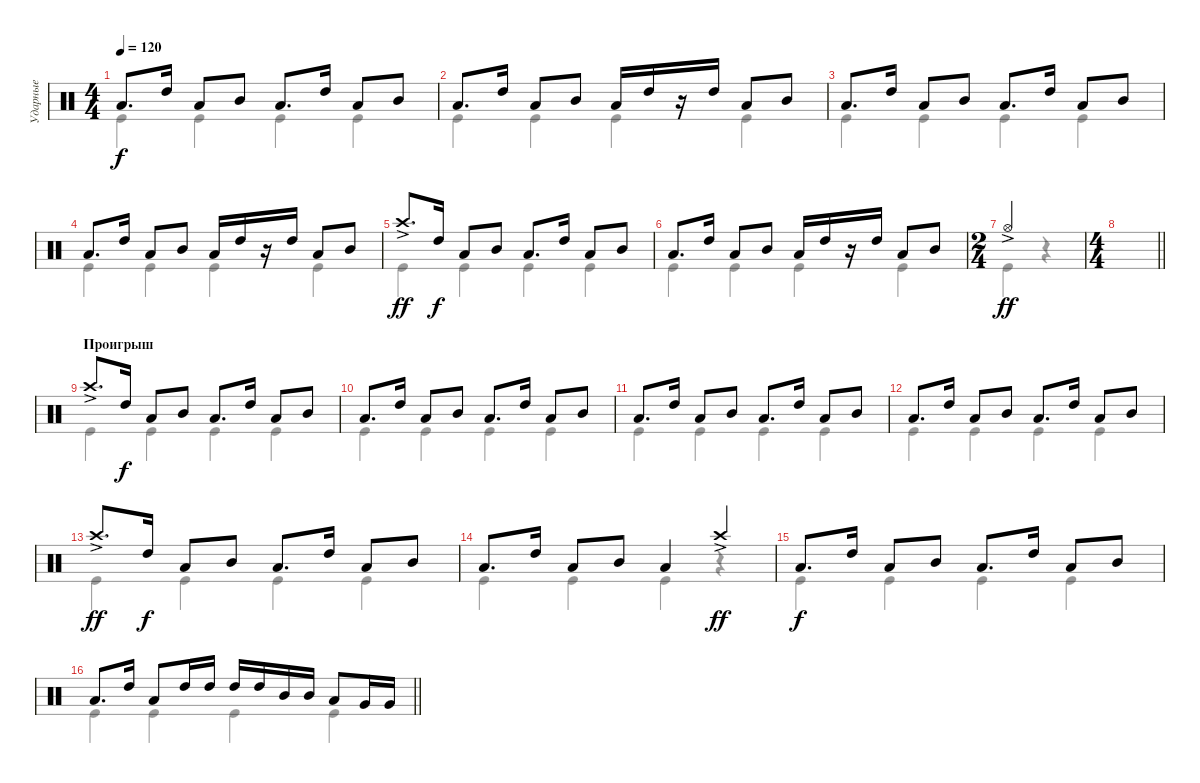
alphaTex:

\track ("Ударные" "Ударные") {instrument percussion}
\staff {score}
\articulation defaults
\voice
\ts (4 4)
\tempo 120
\clef neutral
\ks c "Low Tom (hit)".8{d dy f} "High Tom (hit)".16 "Low Tom (hit)".8 "Mid Tom (hit)".8 "Low Tom (hit)".8{d} "High Tom (hit)".16 "Low Tom (hit)".8 "Mid Tom (hit)".8
|
"Low Tom (hit)".8{d} "High Tom (hit)".16 "Low Tom (hit)".8 "Mid Tom (hit)".8 "Low Tom (hit)".16 "High Tom (hit)".16 r.16 "High Tom (hit)".16 "Low Tom (hit)".8 "Mid Tom (hit)".8 |
"Low Tom (hit)".8{d} "High Tom (hit)".16 "Low Tom (hit)".8 "Mid Tom (hit)".8 "Low Tom (hit)".8{d} "High Tom (hit)".16 "Low Tom (hit)".8 "Mid Tom (hit)".8 |
"Low Tom (hit)".8{d} "High Tom (hit)".16 "Low Tom (hit)".8 "Mid Tom (hit)".8 "Low Tom (hit)".16 "High Tom (hit)".16 r.16 "High Tom (hit)".16 "Low Tom (hit)".8 "Mid Tom (hit)".8 |
"Crash high (hit)"{ac}.8{d dy ff} "High Tom (hit)".16{dy f} "Low Tom (hit)".8 "Mid Tom (hit)".8 "Low Tom (hit)".8{d} "High Tom (hit)".16 "Low Tom (hit)".8 "Mid Tom (hit)".8 |
"Low Tom (hit)".8{d} "High Tom (hit)".16 "Low Tom (hit)".8 "Mid Tom (hit)".8 "Low Tom (hit)".16 "High Tom (hit)".16 r.16 "High Tom (hit)".16 "Low Tom (hit)".8 "Mid Tom (hit)".8 |
\ts (2 4)
"Hi-Hat (open)"{ac}.2{dy ff} |
\ts (4 4)
\barLineRight lightlight
|
\section ("" "Проигрыш")
"Crash high (hit)"{ac}.8{d} "High Tom (hit)".16{dy f} "Low Tom (hit)".8 "Mid Tom (hit)".8 "Low Tom (hit)".8{d} "High Tom (hit)".16 "Low Tom (hit)".8 "Mid Tom (hit)".8 |
"Low Tom (hit)".8{d} "High Tom (hit)".16 "Low Tom (hit)".8 "Mid Tom (hit)".8 "Low Tom (hit)".8{d} "High Tom (hit)".16 "Low Tom (hit)".8 "Mid Tom (hit)".8 |
"Low Tom (hit)".8{d} "High Tom (hit)".16 "Low Tom (hit)".8 "Mid Tom (hit)".8 "Low Tom (hit)".8{d} "High Tom (hit)".16 "Low Tom (hit)".8 "Mid Tom (hit)".8 |
"Low Tom (hit)".8{d} "High Tom (hit)".16 "Low Tom (hit)".8 "Mid Tom (hit)".8 "Low Tom (hit)".8{d} "High Tom (hit)".16 "Low Tom (hit)".8 "Mid Tom (hit)".8 |
"Crash high (hit)"{ac}.8{d dy ff} "High Tom (hit)".16{dy f} "Low Tom (hit)".8 "Mid Tom (hit)".8 "Low Tom (hit)".8{d} "High Tom (hit)".16 "Low Tom (hit)".8 "Mid Tom (hit)".8 |
"Low Tom (hit)".8{d} "High Tom (hit)".16 "Low Tom (hit)".8 "Mid Tom (hit)".8 "Low Tom (hit)".4 "Crash high (hit)"{ac}.4{dy ff} |
"Low Tom (hit)".8{d dy f} "High Tom (hit)".16 "Low Tom (hit)".8 "Mid Tom (hit)".8 "Low Tom (hit)".8{d} "High Tom (hit)".16 "Low Tom (hit)".8 "Mid Tom (hit)".8 |
\barLineRight lightlight "Low Tom (hit)".8{d} "High Tom (hit)".16 "Low Tom (hit)".8 "High Tom (hit)".16 "High Tom (hit)".16 "High Tom (hit)".16 "High Tom (hit)".16 "Mid Tom (hit)".16 "Mid Tom (hit)".16 "Low Tom (hit)".8 "Very Low Tom (hit)".16 "Very Low Tom (hit)".16
\voice
\clef neutral
\ottava regular
\simile none
\ks c "Kick (hit)".4{dy f} "Kick (hit)".4 "Kick (hit)".4 "Kick (hit)".4
|
"Kick (hit)".4 "Kick (hit)".4 "Kick (hit)".4 "Kick (hit)".4 |
"Kick (hit)".4 "Kick (hit)".4 "Kick (hit)".4 "Kick (hit)".4 |
"Kick (hit)".4 "Kick (hit)".4 "Kick (hit)".4 "Kick (hit)".4 |
"Kick (hit)".4 "Kick (hit)".4 "Kick (hit)".4 "Kick (hit)".4 |
"Kick (hit)".4 "Kick (hit)".4 "Kick (hit)".4 "Kick (hit)".4 |
"Kick (hit)".4 r.4 |
\barLineRight lightlight
|
"Kick (hit)".4 "Kick (hit)".4 "Kick (hit)".4 "Kick (hit)".4 |
"Kick (hit)".4 "Kick (hit)".4 "Kick (hit)".4 "Kick (hit)".4 |
"Kick (hit)".4 "Kick (hit)".4 "Kick (hit)".4 "Kick (hit)".4 |
"Kick (hit)".4 "Kick (hit)".4 "Kick (hit)".4 "Kick (hit)".4 |
"Kick (hit)".4 "Kick (hit)".4 "Kick (hit)".4 "Kick (hit)".4 |
"Kick (hit)".4 "Kick (hit)".4 "Kick (hit)".4 r.4 |
"Kick (hit)".4 "Kick (hit)".4 "Kick (hit)".4 "Kick (hit)".4 |
\barLineRight lightlight "Kick (hit)".4 "Kick (hit)".4 "Kick (hit)".4 "Kick (hit)".4
